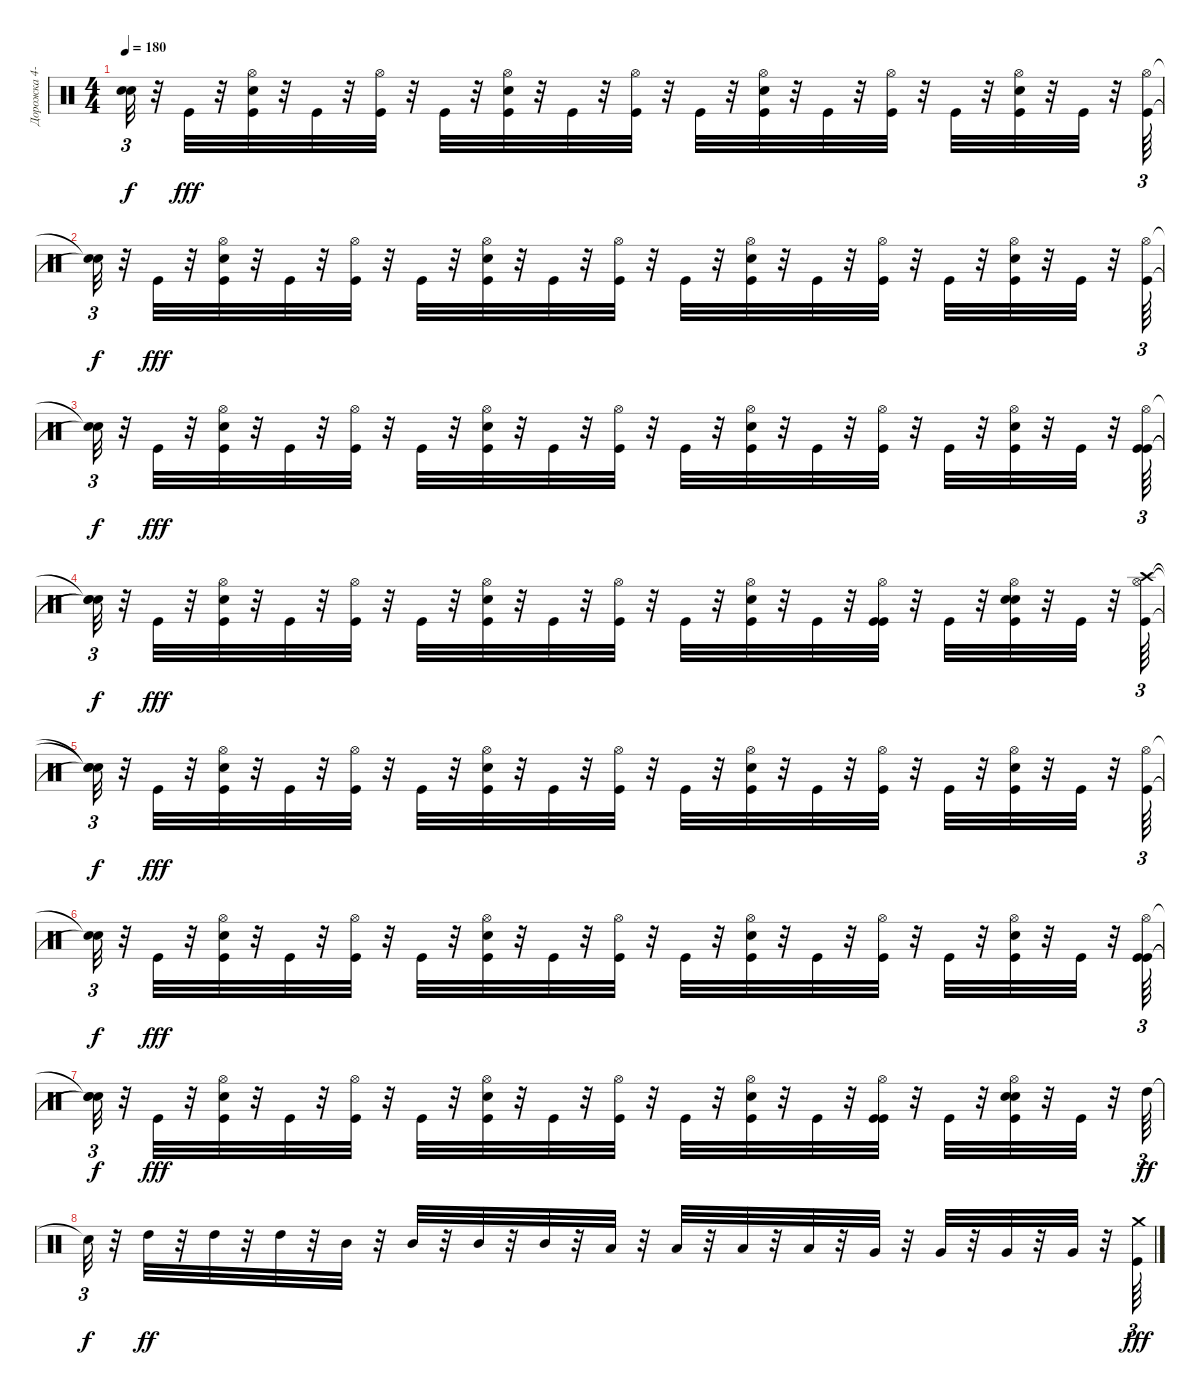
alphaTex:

\track ("Дорожка 4-10-11" "Дорожка 4-") {instrument percussion}
\staff {score}
\articulation defaults
\ts (4 4)
\tempo 180
\clef neutral
\ks c
("Snare (hit)"{t} "Snare (hit)"{t}).32{tu (3 2) dy f} r.32 "Kick (hit)".32{dy fff} r.32 ("Hi-Hat (open)" "Snare (hit) 2" "Kick (hit)").32 r.32 "Kick (hit)".32 r.32 ("Hi-Hat (open)" "Kick (hit)").32 r.32 "Kick (hit)".32 r.32 ("Snare (hit) 2" "Hi-Hat (open)" "Kick (hit)").32 r.32 "Kick (hit)".32 r.32 ("Hi-Hat (open)" "Kick (hit)").32 r.32 "Kick (hit)".32 r.32 ("Hi-Hat (open)" "Snare (hit) 2" "Kick (hit)").32 r.32 "Kick (hit)".32 r.32 ("Hi-Hat (open)" "Kick (hit)").32 r.32 "Kick (hit)".32 r.32 ("Hi-Hat (open)" "Snare (hit) 2" "Kick (hit)").32 r.32 "Kick (hit)".32 r.32 ("Hi-Hat (open)" "Kick (hit)").64{tu (3 2)} |
("Snare (hit)"{t} "Snare (hit)"{t}).32{tu (3 2) dy f} r.32 "Kick (hit)".32{dy fff} r.32 ("Hi-Hat (open)" "Snare (hit) 2" "Kick (hit)").32 r.32 "Kick (hit)".32 r.32 ("Hi-Hat (open)" "Kick (hit)").32 r.32 "Kick (hit)".32 r.32 ("Snare (hit) 2" "Hi-Hat (open)" "Kick (hit)").32 r.32 "Kick (hit)".32 r.32 ("Hi-Hat (open)" "Kick (hit)").32 r.32 "Kick (hit)".32 r.32 ("Hi-Hat (open)" "Snare (hit) 2" "Kick (hit)").32 r.32 "Kick (hit)".32 r.32 ("Hi-Hat (open)" "Kick (hit)").32 r.32 "Kick (hit)".32 r.32 ("Hi-Hat (open)" "Snare (hit) 2" "Kick (hit)").32 r.32 "Kick (hit)".32 r.32 ("Hi-Hat (open)" "Kick (hit)").64{tu (3 2)} |
("Snare (hit)"{t} "Snare (hit)"{t}).32{tu (3 2) dy f} r.32 "Kick (hit)".32{dy fff} r.32 ("Hi-Hat (open)" "Snare (hit) 2" "Kick (hit)").32 r.32 "Kick (hit)".32 r.32 ("Hi-Hat (open)" "Kick (hit)").32 r.32 "Kick (hit)".32 r.32 ("Snare (hit) 2" "Hi-Hat (open)" "Kick (hit)").32 r.32 "Kick (hit)".32 r.32 ("Hi-Hat (open)" "Kick (hit)").32 r.32 "Kick (hit)".32 r.32 ("Hi-Hat (open)" "Snare (hit) 2" "Kick (hit)").32 r.32 "Kick (hit)".32 r.32 ("Hi-Hat (open)" "Kick (hit)").32 r.32 "Kick (hit)".32 r.32 ("Hi-Hat (open)" "Snare (hit) 2" "Kick (hit)").32 r.32 "Kick (hit)".32 r.32 ("Hi-Hat (open)" "Kick (hit)" "Kick (hit)").64{tu (3 2)} |
("Snare (hit)"{t} "Snare (hit)"{t} "Snare (hit)"{t}).32{tu (3 2) dy f} r.32 "Kick (hit)".32{dy fff} r.32 ("Hi-Hat (open)" "Snare (hit) 2" "Kick (hit)").32 r.32 "Kick (hit)".32 r.32 ("Hi-Hat (open)" "Kick (hit)").32 r.32 "Kick (hit)".32 r.32 ("Snare (hit) 2" "Hi-Hat (open)" "Kick (hit)").32 r.32 "Kick (hit)".32 r.32 ("Hi-Hat (open)" "Kick (hit)").32 r.32 "Kick (hit)".32 r.32 ("Hi-Hat (open)" "Snare (hit) 2" "Kick (hit)").32 r.32 "Kick (hit)".32 r.32 ("Hi-Hat (open)" "Kick (hit)" "Kick (hit)").32 r.32 "Kick (hit)".32 r.32 ("Snare (hit) 2" "Hi-Hat (open)" "Snare (hit) 2" "Kick (hit)").32 r.32 "Kick (hit)".32 r.32 ("Crash high (hit)" "Hi-Hat (open)" "Kick (hit)").64{tu (3 2)} |
("Snare (hit)"{t} "Snare (hit)"{t} "Snare (hit)"{t}).32{tu (3 2) dy f} r.32 "Kick (hit)".32{dy fff} r.32 ("Hi-Hat (open)" "Snare (hit) 2" "Kick (hit)").32 r.32 "Kick (hit)".32 r.32 ("Hi-Hat (open)" "Kick (hit)").32 r.32 "Kick (hit)".32 r.32 ("Snare (hit) 2" "Hi-Hat (open)" "Kick (hit)").32 r.32 "Kick (hit)".32 r.32 ("Hi-Hat (open)" "Kick (hit)").32 r.32 "Kick (hit)".32 r.32 ("Hi-Hat (open)" "Snare (hit) 2" "Kick (hit)").32 r.32 "Kick (hit)".32 r.32 ("Hi-Hat (open)" "Kick (hit)").32 r.32 "Kick (hit)".32 r.32 ("Hi-Hat (open)" "Snare (hit) 2" "Kick (hit)").32 r.32 "Kick (hit)".32 r.32 ("Hi-Hat (open)" "Kick (hit)").64{tu (3 2)} |
("Snare (hit)"{t} "Snare (hit)"{t}).32{tu (3 2) dy f} r.32 "Kick (hit)".32{dy fff} r.32 ("Hi-Hat (open)" "Snare (hit) 2" "Kick (hit)").32 r.32 "Kick (hit)".32 r.32 ("Hi-Hat (open)" "Kick (hit)").32 r.32 "Kick (hit)".32 r.32 ("Snare (hit) 2" "Hi-Hat (open)" "Kick (hit)").32 r.32 "Kick (hit)".32 r.32 ("Hi-Hat (open)" "Kick (hit)").32 r.32 "Kick (hit)".32 r.32 ("Hi-Hat (open)" "Snare (hit) 2" "Kick (hit)").32 r.32 "Kick (hit)".32 r.32 ("Hi-Hat (open)" "Kick (hit)").32 r.32 "Kick (hit)".32 r.32 ("Hi-Hat (open)" "Snare (hit) 2" "Kick (hit)").32 r.32 "Kick (hit)".32 r.32 ("Hi-Hat (open)" "Kick (hit)" "Kick (hit)").64{tu (3 2)} |
("Snare (hit)"{t} "Snare (hit)"{t} "Snare (hit)"{t}).32{tu (3 2) dy f} r.32 "Kick (hit)".32{dy fff} r.32 ("Hi-Hat (open)" "Snare (hit) 2" "Kick (hit)").32 r.32 "Kick (hit)".32 r.32 ("Hi-Hat (open)" "Kick (hit)").32 r.32 "Kick (hit)".32 r.32 ("Snare (hit) 2" "Hi-Hat (open)" "Kick (hit)").32 r.32 "Kick (hit)".32 r.32 ("Hi-Hat (open)" "Kick (hit)").32 r.32 "Kick (hit)".32 r.32 ("Hi-Hat (open)" "Snare (hit) 2" "Kick (hit)").32 r.32 "Kick (hit)".32 r.32 ("Hi-Hat (open)" "Kick (hit)" "Kick (hit)").32 r.32 "Kick (hit)".32 r.32 ("Snare (hit) 2" "Hi-Hat (open)" "Snare (hit) 2" "Kick (hit)").32 r.32 "Kick (hit)".32 r.32 "High Tom (hit)".64{tu (3 2) dy ff} |
"Snare (hit)"{t}.32{tu (3 2) dy f} r.32 "High Tom (hit)".32{dy ff} r.32 "High Tom (hit)".32 r.32 "High Tom (hit)".32 r.32 "Mid Tom (hit)".32 r.32 "Mid Tom (hit)".32 r.32 "Mid Tom (hit)".32 r.32 "Mid Tom (hit)".32 r.32 "Low Tom (hit)".32 r.32 "Low Tom (hit)".32 r.32 "Low Tom (hit)".32 r.32 "Low Tom (hit)".32 r.32 "Very Low Tom (hit)".32 r.32 "Very Low Tom (hit)".32 r.32 "Very Low Tom (hit)".32 r.32 "Very Low Tom (hit)".32 r.32 ("Crash medium (hit)" "Kick (hit)").64{tu (3 2) dy fff}
